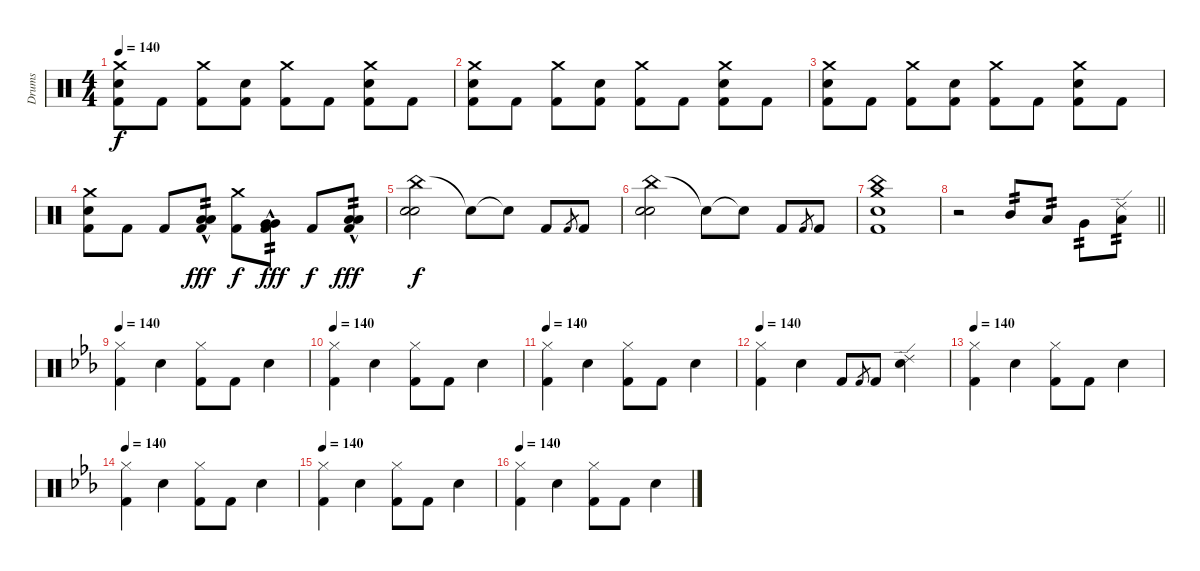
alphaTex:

\track ("Drums" "Drums") {instrument percussion}
\staff {score}
\articulation defaults
\ts (4 4)
\tempo 140
\clef neutral
\ks c
("Crash medium (hit)" "Snare (hit) 2" "Kick (hit) 2").8{dy f} "Kick (hit) 2".8 ("Crash medium (hit)" "Kick (hit) 2").8 ("Snare (hit) 2" "Kick (hit) 2").8 ("Crash medium (hit)" "Kick (hit) 2").8 "Kick (hit) 2".8 ("Crash medium (hit)" "Snare (hit) 2" "Kick (hit) 2").8 "Kick (hit) 2".8 |
("Crash medium (hit)" "Snare (hit) 2" "Kick (hit) 2").8 "Kick (hit) 2".8 ("Crash medium (hit)" "Kick (hit) 2").8 ("Snare (hit) 2" "Kick (hit) 2").8 ("Crash medium (hit)" "Kick (hit) 2").8 "Kick (hit) 2".8 ("Crash medium (hit)" "Snare (hit) 2" "Kick (hit) 2").8 "Kick (hit) 2".8 |
("Crash medium (hit)" "Snare (hit) 2" "Kick (hit) 2").8 "Kick (hit) 2".8 ("Crash medium (hit)" "Kick (hit) 2").8 ("Snare (hit) 2" "Kick (hit) 2").8 ("Crash medium (hit)" "Kick (hit) 2").8 "Kick (hit) 2".8 ("Crash medium (hit)" "Snare (hit) 2" "Kick (hit) 2").8 "Kick (hit) 2".8 |
("Crash medium (hit)" "Snare (hit) 2" "Kick (hit) 2").8 "Kick (hit) 2".8 "Kick (hit) 2".8 ("Low Tom (hit)" "Low Tom (hit)"{hac} "Kick (hit) 2").8{tp 2 dy fff} ("Crash medium (hit)" "Kick (hit) 2").8{dy f} ("Very Low Tom (hit)" "Very Low Tom (hit)"{hac} "Kick (hit) 2").8{tp 2 dy fff} "Kick (hit) 2".8{dy f} ("Low Floor Tom (hit)" "Low Floor Tom (hit)"{hac} "Kick (hit) 2").8{tp 2 dy fff} |
("China (hit)" "Snare (hit) 2" "Snare (hit) 2").2{dy f} "Snare (hit)"{t}.8 "Snare (hit)"{t}.8 "Kick (hit) 2".8 "Kick (hit) 2".8{gr} "Kick (hit) 2".8 |
("China (hit)" "Snare (hit) 2" "Snare (hit) 2").2 "Snare (hit)"{t}.8 "Snare (hit)"{t}.8 "Kick (hit) 2".8 "Kick (hit) 2".8{gr} "Kick (hit) 2".8 |
("China (hit)" "Crash medium (hit)" "Snare (hit) 2" "Kick (hit) 2").1 |
\barLineRight lightlight
r.2 "Mid Tom (hit)".8{tp 2} "Low Tom (hit)".8{tp 2} "Very Low Tom (hit)".8{tp 2} ("Ride (edge) 2" "Low Floor Tom (hit)").8{tp 2} |
\tempo 140
\ks eb
("Hi-Hat (closed)" "Kick (hit) 2").4 "Snare (hit) 2".4 ("Hi-Hat (closed)" "Kick (hit) 2").8 "Kick (hit) 2".8 "Snare (hit) 2".4 |
\tempo 140
("Hi-Hat (closed)" "Kick (hit) 2").4 "Snare (hit) 2".4 ("Hi-Hat (closed)" "Kick (hit) 2").8 "Kick (hit) 2".8 "Snare (hit) 2".4 |
\tempo 140
("Hi-Hat (closed)" "Kick (hit) 2").4 "Snare (hit) 2".4 ("Hi-Hat (closed)" "Kick (hit) 2").8 "Kick (hit) 2".8 "Snare (hit) 2".4 |
\tempo 140
("Hi-Hat (closed)" "Kick (hit) 2").4 "Snare (hit) 2".4 "Kick (hit) 2".8 "Kick (hit) 2".8{gr} "Kick (hit) 2".8 ("Ride (edge) 2" "Snare (hit) 2").4 |
\tempo 140
("Hi-Hat (closed)" "Kick (hit) 2").4 "Snare (hit) 2".4 ("Hi-Hat (closed)" "Kick (hit) 2").8 "Kick (hit) 2".8 "Snare (hit) 2".4 |
\tempo 140
("Hi-Hat (closed)" "Kick (hit) 2").4 "Snare (hit) 2".4 ("Hi-Hat (closed)" "Kick (hit) 2").8 "Kick (hit) 2".8 "Snare (hit) 2".4 |
\tempo 140
("Hi-Hat (closed)" "Kick (hit) 2").4 "Snare (hit) 2".4 ("Hi-Hat (closed)" "Kick (hit) 2").8 "Kick (hit) 2".8 "Snare (hit) 2".4 |
\tempo 140
("Hi-Hat (closed)" "Kick (hit) 2").4 "Snare (hit) 2".4 ("Hi-Hat (closed)" "Kick (hit) 2").8 "Kick (hit) 2".8 "Snare (hit) 2".4
